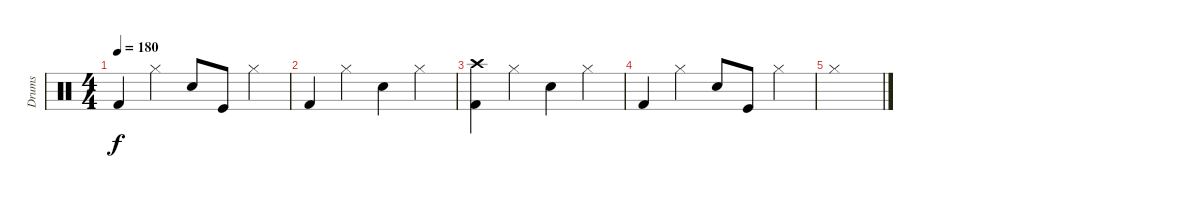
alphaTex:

\track ("Drums" "Drums") {instrument percussion}
\staff
\articulation defaults
\ts (4 4)
\tempo 180
\clef neutral
\ks c "Kick (hit) 2".4{dy f} "Hi-Hat (closed)".4 "Electric Snare (hit)".8 "Kick (hit)".8 "Hi-Hat (closed)".4
|
"Kick (hit) 2".4 "Hi-Hat (closed)".4 "Electric Snare (hit)".4 "Hi-Hat (closed)".4 |
("Crash high (hit)" "Kick (hit) 2").4 "Hi-Hat (closed)".4 "Electric Snare (hit)".4 "Hi-Hat (closed)".4 |
"Kick (hit) 2".4 "Hi-Hat (closed)".4 "Electric Snare (hit)".8 "Kick (hit)".8 "Hi-Hat (closed)".4 |
"Hi-Hat (closed)".1
